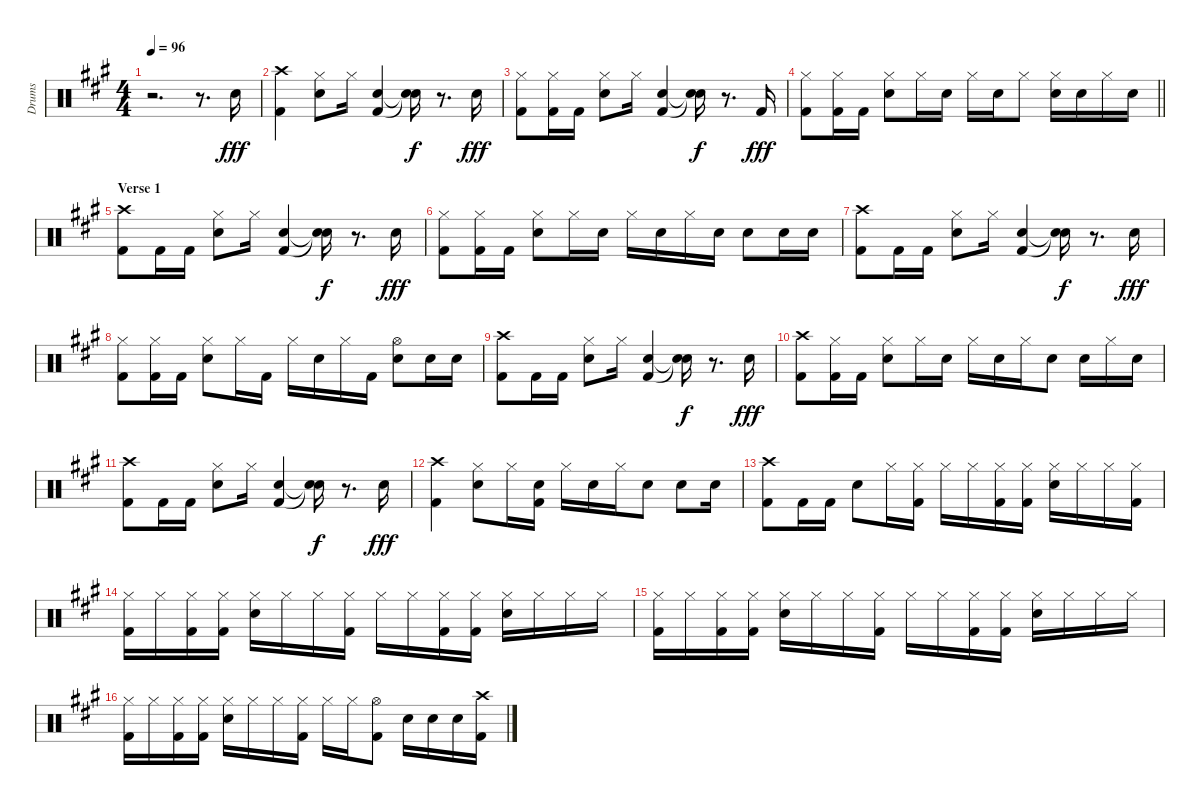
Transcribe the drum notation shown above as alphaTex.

\track ("Drums" "Drums") {instrument percussion}
\staff {score}
\articulation defaults
\ts (4 4)
\tempo 96
\clef neutral
\ks a
r.2{d dy fff} r.8{d} "Electric Snare (hit)".16 |
("Kick (hit) 2" "Crash high (hit)").4 ("Electric Snare (hit)" "Hi-Hat (closed)").8 "Hi-Hat (closed)".16 ("Kick (hit) 2" "Electric Snare (hit)").4 ("Snare (hit)"{t} "Snare (hit)"{t}).16{dy f} r.8{d} "Electric Snare (hit)".16{dy fff} |
("Hi-Hat (closed)" "Kick (hit) 2").8 ("Kick (hit) 2" "Hi-Hat (closed)").16 "Kick (hit) 2".16 ("Electric Snare (hit)" "Hi-Hat (closed)").8 "Hi-Hat (closed)".16 ("Kick (hit) 2" "Electric Snare (hit)").4 ("Snare (hit)"{t} "Snare (hit)"{t}).16{dy f} r.8{d} "Kick (hit) 2".16{dy fff} |
\barLineRight lightlight
("Kick (hit) 2" "Hi-Hat (closed)").8 ("Kick (hit) 2" "Hi-Hat (closed)").16 "Kick (hit) 2".16 ("Electric Snare (hit)" "Hi-Hat (closed)").8 "Hi-Hat (closed)".16 "Electric Snare (hit)".16 "Hi-Hat (closed)".16 "Electric Snare (hit)".16 "Hi-Hat (closed)".8 ("Hi-Hat (closed)" "Electric Snare (hit)").16 "Electric Snare (hit)".16 "Hi-Hat (closed)".16 "Electric Snare (hit)".16 |
\section ("" "Verse 1")
("Crash high (hit)" "Kick (hit) 2").8 "Kick (hit) 2".16 "Kick (hit) 2".16 ("Electric Snare (hit)" "Hi-Hat (closed)").8 "Hi-Hat (closed)".16 ("Kick (hit) 2" "Electric Snare (hit)").4 ("Snare (hit)"{t} "Snare (hit)"{t}).16{dy f} r.8{d} "Electric Snare (hit)".16{dy fff} |
("Kick (hit) 2" "Hi-Hat (closed)").8 ("Kick (hit) 2" "Hi-Hat (closed)").16 "Kick (hit) 2".16 ("Electric Snare (hit)" "Hi-Hat (closed)").8 "Hi-Hat (closed)".16 "Electric Snare (hit)".16 "Hi-Hat (closed)".16 "Electric Snare (hit)".16 "Hi-Hat (closed)".16 "Electric Snare (hit)".16 "Electric Snare (hit)".8 "Electric Snare (hit)".16 "Electric Snare (hit)".16 |
("Crash high (hit)" "Kick (hit) 2").8 "Kick (hit) 2".16 "Kick (hit) 2".16 ("Electric Snare (hit)" "Hi-Hat (closed)").8 "Hi-Hat (closed)".16 ("Kick (hit) 2" "Electric Snare (hit)").4 ("Snare (hit)"{t} "Snare (hit)"{t}).16{dy f} r.8{d} "Electric Snare (hit)".16{dy fff} |
("Hi-Hat (closed)" "Kick (hit) 2").8 ("Kick (hit) 2" "Hi-Hat (closed)").16 "Kick (hit) 2".16 ("Hi-Hat (closed)" "Electric Snare (hit)").8 "Hi-Hat (closed)".16 "Kick (hit) 2".16 "Hi-Hat (closed)".16 "Electric Snare (hit)".16 "Hi-Hat (closed)".16 "Kick (hit) 2".16 ("Hi-Hat (open)" "Electric Snare (hit)").8 "Electric Snare (hit)".16 "Electric Snare (hit)".16 |
("Crash high (hit)" "Kick (hit) 2").8 "Kick (hit) 2".16 "Kick (hit) 2".16 ("Electric Snare (hit)" "Hi-Hat (closed)").8 "Hi-Hat (closed)".16 ("Kick (hit) 2" "Electric Snare (hit)").4 ("Snare (hit)"{t} "Snare (hit)"{t}).16{dy f} r.8{d} "Electric Snare (hit)".16{dy fff} |
("Crash high (hit)" "Kick (hit) 2").8 ("Kick (hit) 2" "Hi-Hat (closed)").16 "Kick (hit) 2".16 ("Hi-Hat (closed)" "Electric Snare (hit)").8 "Hi-Hat (closed)".16 "Electric Snare (hit)".16 "Hi-Hat (closed)".16 "Electric Snare (hit)".16 "Hi-Hat (closed)".16 "Electric Snare (hit)".8 "Electric Snare (hit)".16 "Hi-Hat (closed)".16 "Electric Snare (hit)".16 |
("Crash high (hit)" "Kick (hit) 2").8 "Kick (hit) 2".16 "Kick (hit) 2".16 ("Electric Snare (hit)" "Hi-Hat (closed)").8 "Hi-Hat (closed)".16 ("Kick (hit) 2" "Electric Snare (hit)").4 ("Snare (hit)"{t} "Snare (hit)"{t}).16{dy f} r.8{d} "Electric Snare (hit)".16{dy fff} |
("Crash high (hit)" "Kick (hit) 2").4 ("Hi-Hat (closed)" "Electric Snare (hit)").8 "Hi-Hat (closed)".16 ("Electric Snare (hit)" "Kick (hit) 2").16 "Hi-Hat (closed)".16 "Electric Snare (hit)".16 "Hi-Hat (closed)".16 "Electric Snare (hit)".8 "Electric Snare (hit)".8 "Electric Snare (hit)".16 |
("Kick (hit) 2" "Crash high (hit)").8 "Kick (hit) 2".16 "Kick (hit) 2".16 "Electric Snare (hit)".8 "Hi-Hat (closed)".16 ("Hi-Hat (closed)" "Kick (hit) 2").16 "Hi-Hat (closed)".16 "Hi-Hat (closed)".16 ("Kick (hit) 2" "Hi-Hat (closed)").16 ("Hi-Hat (closed)" "Kick (hit) 2").16 ("Electric Snare (hit)" "Hi-Hat (closed)").16 "Hi-Hat (closed)".16 "Hi-Hat (closed)".16 ("Hi-Hat (closed)" "Kick (hit) 2").16 |
("Hi-Hat (closed)" "Kick (hit) 2").16 "Hi-Hat (closed)".16 ("Hi-Hat (closed)" "Kick (hit) 2").16 ("Hi-Hat (closed)" "Kick (hit) 2").16 ("Hi-Hat (closed)" "Electric Snare (hit)").16 "Hi-Hat (closed)".16 "Hi-Hat (closed)".16 ("Kick (hit) 2" "Hi-Hat (closed)").16 "Hi-Hat (closed)".16 "Hi-Hat (closed)".16 ("Hi-Hat (closed)" "Kick (hit) 2").16 ("Hi-Hat (closed)" "Kick (hit) 2").16 ("Electric Snare (hit)" "Hi-Hat (closed)").16 "Hi-Hat (closed)".16 "Hi-Hat (closed)".16 "Hi-Hat (closed)".16 |
("Hi-Hat (closed)" "Kick (hit) 2").16 "Hi-Hat (closed)".16 ("Hi-Hat (closed)" "Kick (hit) 2").16 ("Hi-Hat (closed)" "Kick (hit) 2").16 ("Electric Snare (hit)" "Hi-Hat (closed)").16 "Hi-Hat (closed)".16 "Hi-Hat (closed)".16 ("Kick (hit) 2" "Hi-Hat (closed)").16 "Hi-Hat (closed)".16 "Hi-Hat (closed)".16 ("Kick (hit) 2" "Hi-Hat (closed)").16 ("Kick (hit) 2" "Hi-Hat (closed)").16 ("Electric Snare (hit)" "Hi-Hat (closed)").16 "Hi-Hat (closed)".16 "Hi-Hat (closed)".16 "Hi-Hat (closed)".16 |
("Kick (hit) 2" "Hi-Hat (closed)").16 "Hi-Hat (closed)".16 ("Kick (hit) 2" "Hi-Hat (closed)").16 ("Kick (hit) 2" "Hi-Hat (closed)").16 ("Electric Snare (hit)" "Hi-Hat (closed)").16 "Hi-Hat (closed)".16 "Hi-Hat (closed)".16 ("Kick (hit) 2" "Hi-Hat (closed)").16 "Hi-Hat (closed)".16 "Hi-Hat (closed)".16 ("Kick (hit) 2" "Hi-Hat (open)").8 "Electric Snare (hit)".16 "Electric Snare (hit)".16 "Electric Snare (hit)".16 ("Kick (hit) 2" "Crash high (hit)").16
